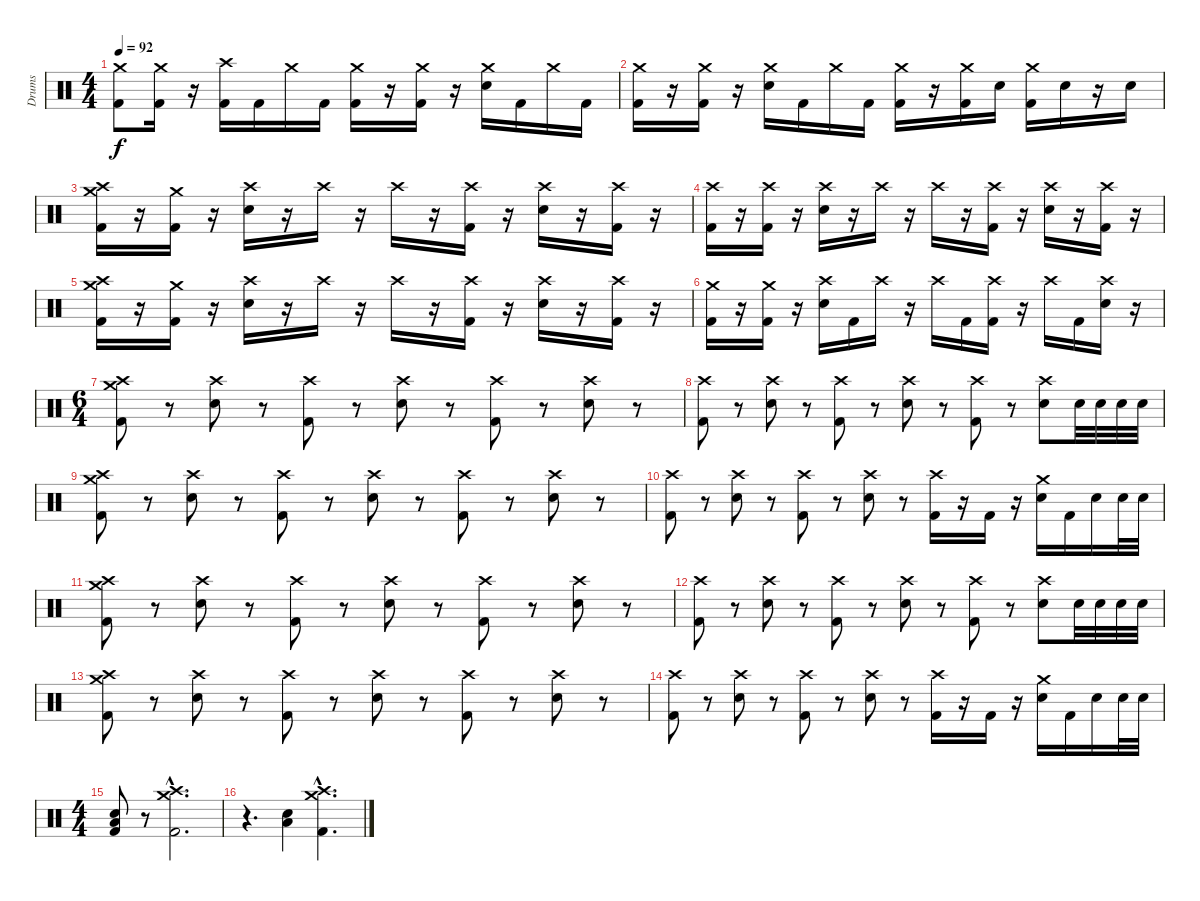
\track ("Drums" "Drums") {instrument percussion}
\staff {score}
\articulation defaults
\ts (4 4)
\tempo 92
\clef neutral
\ks c
("Crash medium (hit)" "Kick (hit) 2").8{dy f} ("Crash medium (hit)" "Kick (hit) 2").16 r.16 ("Crash high (hit)" "Kick (hit) 2").16 "Kick (hit) 2".16 "Crash medium (hit)".16 "Kick (hit) 2".16 ("Crash medium (hit)" "Kick (hit) 2").16 r.16 ("Crash medium (hit)" "Kick (hit) 2").16 r.16 ("Crash medium (hit)" "Snare (hit) 2").16 "Kick (hit) 2".16 "Crash medium (hit)".16 "Kick (hit) 2".16 |
("Crash medium (hit)" "Kick (hit) 2").16 r.16 ("Crash medium (hit)" "Kick (hit) 2").16 r.16 ("Crash medium (hit)" "Snare (hit) 2").16 "Kick (hit) 2".16 "Crash medium (hit)".16 "Kick (hit) 2".16 ("Crash medium (hit)" "Kick (hit) 2").16 r.16 ("Crash medium (hit)" "Kick (hit) 2").16 "Snare (hit) 2".16 ("Crash medium (hit)" "Kick (hit) 2").16 "Snare (hit) 2".16 r.16 "Snare (hit) 2".16 |
("Crash high (hit)" "Crash medium (hit)" "Kick (hit) 2").16 r.16 ("Crash medium (hit)" "Kick (hit) 2").16 r.16 ("Crash high (hit)" "Snare (hit) 2").16 r.16 "Crash high (hit)".16 r.16 "Crash high (hit)".16 r.16 ("Crash high (hit)" "Kick (hit) 2").16 r.16 ("Crash high (hit)" "Snare (hit) 2").16 r.16 ("Crash high (hit)" "Kick (hit) 2").16 r.16 |
("Crash high (hit)" "Kick (hit) 2").16 r.16 ("Crash high (hit)" "Kick (hit) 2").16 r.16 ("Crash high (hit)" "Snare (hit) 2").16 r.16 "Crash high (hit)".16 r.16 "Crash high (hit)".16 r.16 ("Crash high (hit)" "Kick (hit) 2").16 r.16 ("Crash high (hit)" "Snare (hit) 2").16 r.16 ("Crash high (hit)" "Kick (hit) 2").16 r.16 |
("Crash high (hit)" "Crash medium (hit)" "Kick (hit) 2").16 r.16 ("Crash medium (hit)" "Kick (hit) 2").16 r.16 ("Crash high (hit)" "Snare (hit) 2").16 r.16 "Crash high (hit)".16 r.16 "Crash high (hit)".16 r.16 ("Crash high (hit)" "Kick (hit) 2").16 r.16 ("Crash high (hit)" "Snare (hit) 2").16 r.16 ("Crash high (hit)" "Kick (hit) 2").16 r.16 |
("Crash medium (hit)" "Kick (hit) 2").16 r.16 ("Crash medium (hit)" "Kick (hit) 2").16 r.16 ("Crash high (hit)" "Snare (hit) 2").16 "Kick (hit) 2".16 "Crash high (hit)".16 r.16 "Crash high (hit)".16 "Kick (hit) 2".16 ("Crash high (hit)" "Kick (hit) 2").16 r.16 "Crash high (hit)".16 "Kick (hit) 2".16 ("Crash high (hit)" "Snare (hit) 2").16 r.16 |
\ts (6 4)
("Crash high (hit)" "Crash medium (hit)" "Kick (hit) 2").8 r.8 ("Crash high (hit)" "Snare (hit) 2").8 r.8 ("Crash high (hit)" "Kick (hit) 2").8 r.8 ("Crash high (hit)" "Snare (hit) 2").8 r.8 ("Crash high (hit)" "Kick (hit) 2").8 r.8 ("Crash high (hit)" "Snare (hit) 2").8 r.8 |
("Crash high (hit)" "Kick (hit) 2").8 r.8 ("Crash high (hit)" "Snare (hit) 2").8 r.8 ("Crash high (hit)" "Kick (hit) 2").8 r.8 ("Crash high (hit)" "Snare (hit) 2").8 r.8 ("Crash high (hit)" "Kick (hit) 2").8 r.8 ("Crash high (hit)" "Snare (hit) 2").8 "Snare (hit) 2".32 "Snare (hit) 2".32 "Snare (hit) 2".32 "Snare (hit) 2".32 |
("Crash high (hit)" "Crash medium (hit)" "Kick (hit) 2").8 r.8 ("Crash high (hit)" "Snare (hit) 2").8 r.8 ("Crash high (hit)" "Kick (hit) 2").8 r.8 ("Crash high (hit)" "Snare (hit) 2").8 r.8 ("Crash high (hit)" "Kick (hit) 2").8 r.8 ("Crash high (hit)" "Snare (hit) 2").8 r.8 |
("Crash high (hit)" "Kick (hit) 2").8 r.8 ("Crash high (hit)" "Snare (hit) 2").8 r.8 ("Crash high (hit)" "Kick (hit) 2").8 r.8 ("Crash high (hit)" "Snare (hit) 2").8 r.8 ("Crash high (hit)" "Kick (hit) 2").16 r.16 "Kick (hit) 2".16 r.16 ("Crash medium (hit)" "Snare (hit) 2").16 "Kick (hit) 2".16 "Snare (hit) 2".16 "Snare (hit) 2".32 "Snare (hit) 2".32 |
("Crash high (hit)" "Crash medium (hit)" "Kick (hit) 2").8 r.8 ("Crash high (hit)" "Snare (hit) 2").8 r.8 ("Crash high (hit)" "Kick (hit) 2").8 r.8 ("Crash high (hit)" "Snare (hit) 2").8 r.8 ("Crash high (hit)" "Kick (hit) 2").8 r.8 ("Crash high (hit)" "Snare (hit) 2").8 r.8 |
("Crash high (hit)" "Kick (hit) 2").8 r.8 ("Crash high (hit)" "Snare (hit) 2").8 r.8 ("Crash high (hit)" "Kick (hit) 2").8 r.8 ("Crash high (hit)" "Snare (hit) 2").8 r.8 ("Crash high (hit)" "Kick (hit) 2").8 r.8 ("Crash high (hit)" "Snare (hit) 2").8 "Snare (hit) 2".32 "Snare (hit) 2".32 "Snare (hit) 2".32 "Snare (hit) 2".32 |
("Crash high (hit)" "Crash medium (hit)" "Kick (hit) 2").8 r.8 ("Crash high (hit)" "Snare (hit) 2").8 r.8 ("Crash high (hit)" "Kick (hit) 2").8 r.8 ("Crash high (hit)" "Snare (hit) 2").8 r.8 ("Crash high (hit)" "Kick (hit) 2").8 r.8 ("Crash high (hit)" "Snare (hit) 2").8 r.8 |
("Crash high (hit)" "Kick (hit) 2").8 r.8 ("Crash high (hit)" "Snare (hit) 2").8 r.8 ("Crash high (hit)" "Kick (hit) 2").8 r.8 ("Crash high (hit)" "Snare (hit) 2").8 r.8 ("Crash high (hit)" "Kick (hit) 2").16 r.16 "Kick (hit) 2".16 r.16 ("Crash medium (hit)" "Snare (hit) 2").16 "Kick (hit) 2".16 "Snare (hit) 2".16 "Snare (hit) 2".32 "Snare (hit) 2".32 |
\ts (4 4)
("Low Floor Tom (hit)" "Snare (hit) 2" "Kick (hit) 2").8 r.8 ("Crash high (hit)"{hac} "Crash medium (hit)"{hac} "Kick (hit) 2"{hac}).2{d} |
r.4{d} ("Low Floor Tom (hit)" "Snare (hit) 2").4 ("Crash high (hit)"{hac} "Crash medium (hit)"{hac} "Kick (hit) 2"{hac}).4{d}
